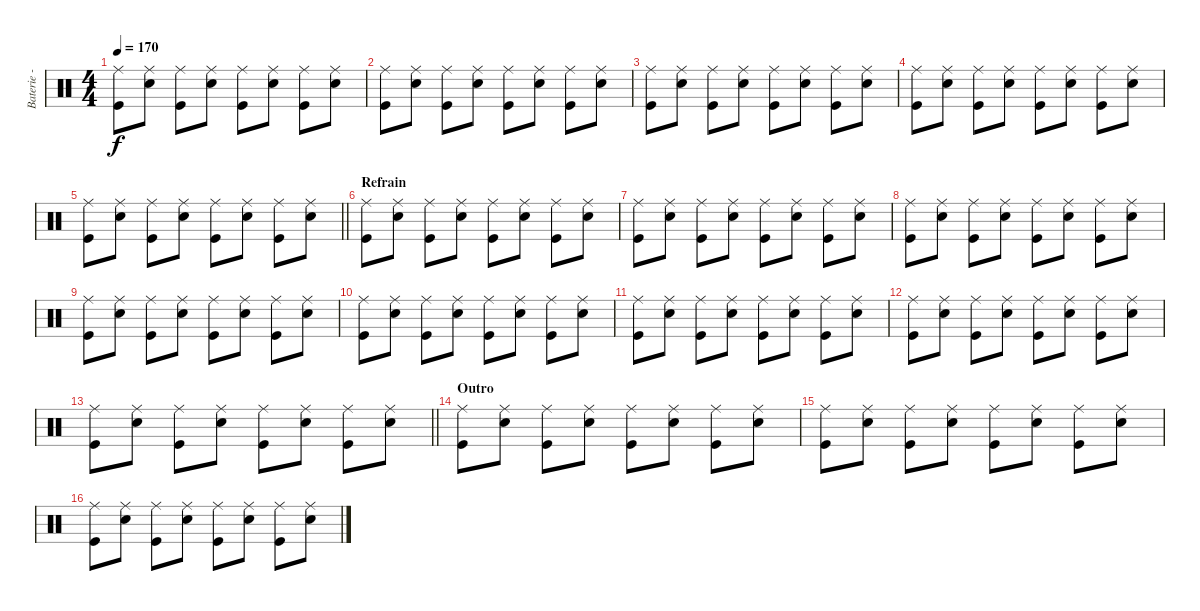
\track ("Baterie - Guillaume" "Baterie - ") {instrument percussion}
\staff {score}
\articulation defaults
\ts (4 4)
\tempo 170
\clef neutral
\ks c
("Ride (middle)" "Kick (hit)").8{dy f} ("Ride (middle)" "Electric Snare (hit)").8 ("Ride (middle)" "Kick (hit)").8 ("Ride (middle)" "Electric Snare (hit)").8 ("Ride (middle)" "Kick (hit)").8 ("Ride (middle)" "Electric Snare (hit)").8 ("Ride (middle)" "Kick (hit)").8 ("Ride (middle)" "Electric Snare (hit)").8 |
("Ride (middle)" "Kick (hit)").8 ("Ride (middle)" "Electric Snare (hit)").8 ("Ride (middle)" "Kick (hit)").8 ("Ride (middle)" "Electric Snare (hit)").8 ("Ride (middle)" "Kick (hit)").8 ("Ride (middle)" "Electric Snare (hit)").8 ("Ride (middle)" "Kick (hit)").8 ("Ride (middle)" "Electric Snare (hit)").8 |
("Ride (middle)" "Kick (hit)").8 ("Ride (middle)" "Electric Snare (hit)").8 ("Ride (middle)" "Kick (hit)").8 ("Ride (middle)" "Electric Snare (hit)").8 ("Ride (middle)" "Kick (hit)").8 ("Ride (middle)" "Electric Snare (hit)").8 ("Ride (middle)" "Kick (hit)").8 ("Ride (middle)" "Electric Snare (hit)").8 |
("Ride (middle)" "Kick (hit)").8 ("Ride (middle)" "Electric Snare (hit)").8 ("Ride (middle)" "Kick (hit)").8 ("Ride (middle)" "Electric Snare (hit)").8 ("Ride (middle)" "Kick (hit)").8 ("Ride (middle)" "Electric Snare (hit)").8 ("Ride (middle)" "Kick (hit)").8 ("Ride (middle)" "Electric Snare (hit)").8 |
\barLineRight lightlight
("Ride (middle)" "Kick (hit)").8 ("Ride (middle)" "Electric Snare (hit)").8 ("Ride (middle)" "Kick (hit)").8 ("Ride (middle)" "Electric Snare (hit)").8 ("Ride (middle)" "Kick (hit)").8 ("Ride (middle)" "Electric Snare (hit)").8 ("Ride (middle)" "Kick (hit)").8 ("Ride (middle)" "Electric Snare (hit)").8 |
\section ("" "Refrain")
("Ride (middle)" "Kick (hit)").8 ("Ride (middle)" "Electric Snare (hit)").8 ("Ride (middle)" "Kick (hit)").8 ("Ride (middle)" "Electric Snare (hit)").8 ("Ride (middle)" "Kick (hit)").8 ("Ride (middle)" "Electric Snare (hit)").8 ("Ride (middle)" "Kick (hit)").8 ("Ride (middle)" "Electric Snare (hit)").8 |
("Ride (middle)" "Kick (hit)").8 ("Ride (middle)" "Electric Snare (hit)").8 ("Ride (middle)" "Kick (hit)").8 ("Ride (middle)" "Electric Snare (hit)").8 ("Ride (middle)" "Kick (hit)").8 ("Ride (middle)" "Electric Snare (hit)").8 ("Ride (middle)" "Kick (hit)").8 ("Ride (middle)" "Electric Snare (hit)").8 |
("Ride (middle)" "Kick (hit)").8 ("Ride (middle)" "Electric Snare (hit)").8 ("Ride (middle)" "Kick (hit)").8 ("Ride (middle)" "Electric Snare (hit)").8 ("Ride (middle)" "Kick (hit)").8 ("Ride (middle)" "Electric Snare (hit)").8 ("Ride (middle)" "Kick (hit)").8 ("Ride (middle)" "Electric Snare (hit)").8 |
("Ride (middle)" "Kick (hit)").8 ("Ride (middle)" "Electric Snare (hit)").8 ("Ride (middle)" "Kick (hit)").8 ("Ride (middle)" "Electric Snare (hit)").8 ("Ride (middle)" "Kick (hit)").8 ("Ride (middle)" "Electric Snare (hit)").8 ("Ride (middle)" "Kick (hit)").8 ("Ride (middle)" "Electric Snare (hit)").8 |
("Ride (middle)" "Kick (hit)").8 ("Ride (middle)" "Electric Snare (hit)").8 ("Ride (middle)" "Kick (hit)").8 ("Ride (middle)" "Electric Snare (hit)").8 ("Ride (middle)" "Kick (hit)").8 ("Ride (middle)" "Electric Snare (hit)").8 ("Ride (middle)" "Kick (hit)").8 ("Ride (middle)" "Electric Snare (hit)").8 |
("Ride (middle)" "Kick (hit)").8 ("Ride (middle)" "Electric Snare (hit)").8 ("Ride (middle)" "Kick (hit)").8 ("Ride (middle)" "Electric Snare (hit)").8 ("Ride (middle)" "Kick (hit)").8 ("Ride (middle)" "Electric Snare (hit)").8 ("Ride (middle)" "Kick (hit)").8 ("Ride (middle)" "Electric Snare (hit)").8 |
("Ride (middle)" "Kick (hit)").8 ("Ride (middle)" "Electric Snare (hit)").8 ("Ride (middle)" "Kick (hit)").8 ("Ride (middle)" "Electric Snare (hit)").8 ("Ride (middle)" "Kick (hit)").8 ("Ride (middle)" "Electric Snare (hit)").8 ("Ride (middle)" "Kick (hit)").8 ("Ride (middle)" "Electric Snare (hit)").8 |
\barLineRight lightlight
("Ride (middle)" "Kick (hit)").8 ("Ride (middle)" "Electric Snare (hit)").8 ("Ride (middle)" "Kick (hit)").8 ("Ride (middle)" "Electric Snare (hit)").8 ("Ride (middle)" "Kick (hit)").8 ("Ride (middle)" "Electric Snare (hit)").8 ("Ride (middle)" "Kick (hit)").8 ("Ride (middle)" "Electric Snare (hit)").8 |
\section ("" "Outro")
("Ride (middle)" "Kick (hit)").8 ("Ride (middle)" "Electric Snare (hit)").8 ("Ride (middle)" "Kick (hit)").8 ("Ride (middle)" "Electric Snare (hit)").8 ("Ride (middle)" "Kick (hit)").8 ("Ride (middle)" "Electric Snare (hit)").8 ("Ride (middle)" "Kick (hit)").8 ("Ride (middle)" "Electric Snare (hit)").8 |
("Ride (middle)" "Kick (hit)").8 ("Ride (middle)" "Electric Snare (hit)").8 ("Ride (middle)" "Kick (hit)").8 ("Ride (middle)" "Electric Snare (hit)").8 ("Ride (middle)" "Kick (hit)").8 ("Ride (middle)" "Electric Snare (hit)").8 ("Ride (middle)" "Kick (hit)").8 ("Ride (middle)" "Electric Snare (hit)").8 |
("Ride (middle)" "Kick (hit)").8 ("Ride (middle)" "Electric Snare (hit)").8 ("Ride (middle)" "Kick (hit)").8 ("Ride (middle)" "Electric Snare (hit)").8 ("Ride (middle)" "Kick (hit)").8 ("Ride (middle)" "Electric Snare (hit)").8 ("Ride (middle)" "Kick (hit)").8 ("Ride (middle)" "Electric Snare (hit)").8
